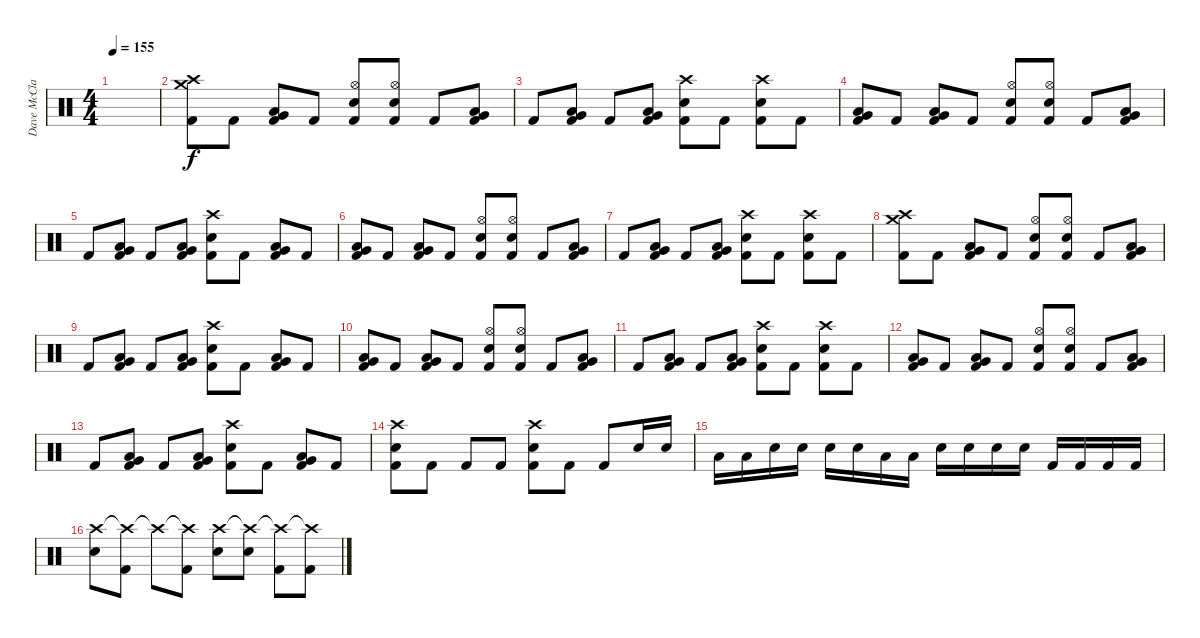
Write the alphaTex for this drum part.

\track ("Dave McClain (Drums)" "Dave McCla") {instrument percussion}
\staff {score}
\articulation defaults
\ts (4 4)
\tempo 155
\clef neutral
\ks c
|
("Crash high (hit)" "Crash medium (hit)" "Kick (hit) 2").8 "Kick (hit) 2".8 ("Very Low Tom (hit)" "Low Floor Tom (hit)" "Kick (hit) 2").8 "Kick (hit) 2".8 ("Hi-Hat (open)" "Electric Snare (hit)" "Kick (hit) 2").8 ("Hi-Hat (open)" "Electric Snare (hit)" "Kick (hit) 2").8 "Kick (hit) 2".8 ("Very Low Tom (hit)" "Low Tom (hit)" "Kick (hit) 2").8 |
"Kick (hit) 2".8 ("Very Low Tom (hit)" "Low Floor Tom (hit)" "Kick (hit) 2").8 "Kick (hit) 2".8 ("Very Low Tom (hit)" "Low Floor Tom (hit)" "Kick (hit) 2").8 ("Crash high (hit)" "Electric Snare (hit)" "Kick (hit) 2").8 "Kick (hit) 2".8 ("Crash high (hit)" "Electric Snare (hit)" "Kick (hit) 2").8 "Kick (hit) 2".8 |
("Low Tom (hit)" "Very Low Tom (hit)" "Kick (hit) 2").8 "Kick (hit) 2".8 ("Very Low Tom (hit)" "Low Floor Tom (hit)" "Kick (hit) 2").8 "Kick (hit) 2".8 ("Hi-Hat (open)" "Electric Snare (hit)" "Kick (hit) 2").8 ("Hi-Hat (open)" "Electric Snare (hit)" "Kick (hit) 2").8 "Kick (hit) 2".8 ("Very Low Tom (hit)" "Low Tom (hit)" "Kick (hit) 2").8 |
"Kick (hit) 2".8 ("Very Low Tom (hit)" "Low Floor Tom (hit)" "Kick (hit) 2").8 "Kick (hit) 2".8 ("Very Low Tom (hit)" "Low Floor Tom (hit)" "Kick (hit) 2").8 ("Crash high (hit)" "Electric Snare (hit)" "Kick (hit) 2").8 "Kick (hit) 2".8 ("Low Tom (hit)" "Very Low Tom (hit)" "Kick (hit) 2").8 "Kick (hit) 2".8 |
("Low Tom (hit)" "Very Low Tom (hit)" "Kick (hit) 2").8 "Kick (hit) 2".8 ("Very Low Tom (hit)" "Low Floor Tom (hit)" "Kick (hit) 2").8 "Kick (hit) 2".8 ("Hi-Hat (open)" "Electric Snare (hit)" "Kick (hit) 2").8 ("Hi-Hat (open)" "Electric Snare (hit)" "Kick (hit) 2").8 "Kick (hit) 2".8 ("Very Low Tom (hit)" "Low Tom (hit)" "Kick (hit) 2").8 |
"Kick (hit) 2".8 ("Very Low Tom (hit)" "Low Floor Tom (hit)" "Kick (hit) 2").8 "Kick (hit) 2".8 ("Very Low Tom (hit)" "Low Floor Tom (hit)" "Kick (hit) 2").8 ("Crash high (hit)" "Electric Snare (hit)" "Kick (hit) 2").8 "Kick (hit) 2".8 ("Crash high (hit)" "Electric Snare (hit)" "Kick (hit) 2").8 "Kick (hit) 2".8 |
("Crash medium (hit)" "Crash high (hit)" "Kick (hit) 2").8 "Kick (hit) 2".8 ("Very Low Tom (hit)" "Low Floor Tom (hit)" "Kick (hit) 2").8 "Kick (hit) 2".8 ("Hi-Hat (open)" "Electric Snare (hit)" "Kick (hit) 2").8 ("Hi-Hat (open)" "Electric Snare (hit)" "Kick (hit) 2").8 "Kick (hit) 2".8 ("Very Low Tom (hit)" "Low Tom (hit)" "Kick (hit) 2").8 |
"Kick (hit) 2".8 ("Very Low Tom (hit)" "Low Floor Tom (hit)" "Kick (hit) 2").8 "Kick (hit) 2".8 ("Very Low Tom (hit)" "Low Floor Tom (hit)" "Kick (hit) 2").8 ("Crash high (hit)" "Electric Snare (hit)" "Kick (hit) 2").8 "Kick (hit) 2".8 ("Low Tom (hit)" "Very Low Tom (hit)" "Kick (hit) 2").8 "Kick (hit) 2".8 |
("Low Tom (hit)" "Very Low Tom (hit)" "Kick (hit) 2").8 "Kick (hit) 2".8 ("Very Low Tom (hit)" "Low Floor Tom (hit)" "Kick (hit) 2").8 "Kick (hit) 2".8 ("Hi-Hat (open)" "Electric Snare (hit)" "Kick (hit) 2").8 ("Hi-Hat (open)" "Electric Snare (hit)" "Kick (hit) 2").8 "Kick (hit) 2".8 ("Very Low Tom (hit)" "Low Tom (hit)" "Kick (hit) 2").8 |
"Kick (hit) 2".8 ("Very Low Tom (hit)" "Low Floor Tom (hit)" "Kick (hit) 2").8 "Kick (hit) 2".8 ("Very Low Tom (hit)" "Low Floor Tom (hit)" "Kick (hit) 2").8 ("Crash high (hit)" "Electric Snare (hit)" "Kick (hit) 2").8 "Kick (hit) 2".8 ("Crash high (hit)" "Electric Snare (hit)" "Kick (hit) 2").8 "Kick (hit) 2".8 |
("Low Tom (hit)" "Very Low Tom (hit)" "Kick (hit) 2").8 "Kick (hit) 2".8 ("Very Low Tom (hit)" "Low Floor Tom (hit)" "Kick (hit) 2").8 "Kick (hit) 2".8 ("Hi-Hat (open)" "Electric Snare (hit)" "Kick (hit) 2").8 ("Hi-Hat (open)" "Electric Snare (hit)" "Kick (hit) 2").8 "Kick (hit) 2".8 ("Very Low Tom (hit)" "Low Tom (hit)" "Kick (hit) 2").8 |
"Kick (hit) 2".8 ("Very Low Tom (hit)" "Low Floor Tom (hit)" "Kick (hit) 2").8 "Kick (hit) 2".8 ("Very Low Tom (hit)" "Low Floor Tom (hit)" "Kick (hit) 2").8 ("Crash high (hit)" "Electric Snare (hit)" "Kick (hit) 2").8 "Kick (hit) 2".8 ("Low Tom (hit)" "Very Low Tom (hit)" "Kick (hit) 2").8 "Kick (hit) 2".8 |
("Crash high (hit)" "Electric Snare (hit)" "Kick (hit) 2").8 "Kick (hit) 2".8 "Kick (hit) 2".8 "Kick (hit) 2".8 ("Crash high (hit)" "Electric Snare (hit)" "Kick (hit) 2").8 "Kick (hit) 2".8 "Kick (hit) 2".8 "Electric Snare (hit)".16 "Electric Snare (hit)".16 |
"Low Tom (hit)".16 "Low Tom (hit)".16 "Electric Snare (hit)".16 "Electric Snare (hit)".16 "Electric Snare (hit)".16 "Electric Snare (hit)".16 "Low Tom (hit)".16 "Low Tom (hit)".16 "Electric Snare (hit)".16 "Electric Snare (hit)".16 "Electric Snare (hit)".16 "Electric Snare (hit)".16 "Kick (hit) 2".16 "Kick (hit) 2".16 "Kick (hit) 2".16 "Kick (hit) 2".16 |
("Crash high (hit)" "Electric Snare (hit)").8 ("Crash high (hit)"{t} "Kick (hit) 2").8 "Crash high (hit)"{t}.8 ("Crash high (hit)"{t} "Kick (hit) 2").8 ("Crash high (hit)" "Electric Snare (hit)").8 ("Crash high (hit)"{t} "Electric Snare (hit)").8 ("Crash high (hit)"{t} "Kick (hit) 2").8 ("Crash high (hit)"{t} "Kick (hit) 2").8
